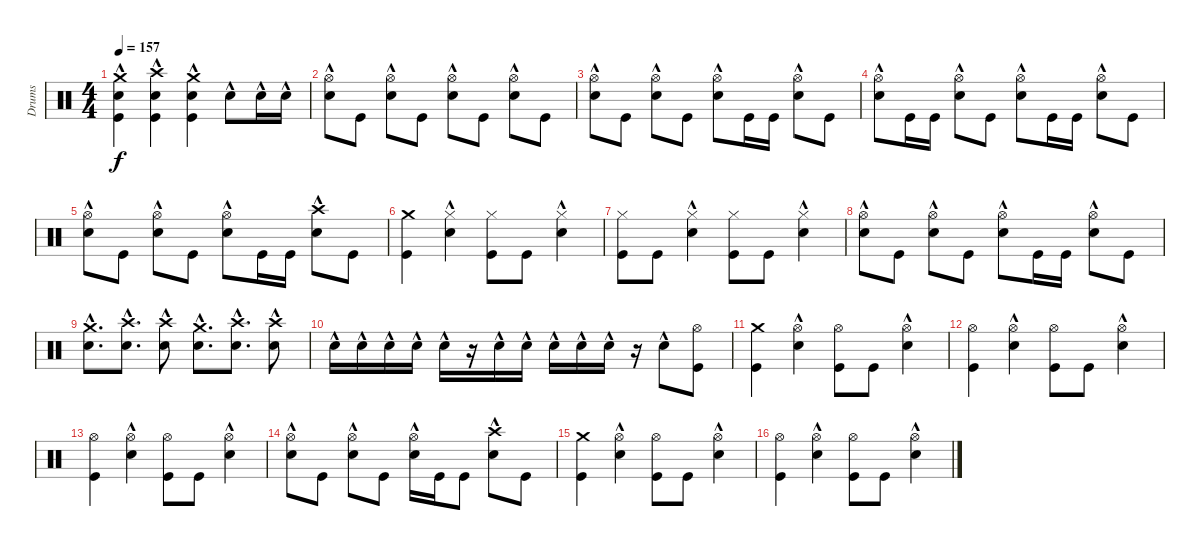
\track ("Drums" "Drums") {solo instrument percussion}
\staff {score}
\articulation defaults
\ts (4 4)
\tempo 157
\clef neutral
\ks c
("Snare (hit) 2"{hac} "Kick (hit)" "Crash medium (hit)").4{dy f} ("Kick (hit)" "Snare (hit) 2"{hac} "Crash high (hit)"{hac}).4 ("Snare (hit) 2"{hac} "Kick (hit)" "Crash medium (hit)").4 "Snare (hit) 2"{hac}.8 "Snare (hit) 2"{hac}.16 "Snare (hit) 2"{hac}.16 |
("Snare (hit) 2"{hac} "Hi-Hat (open)").8 "Kick (hit)".8 ("Snare (hit) 2"{hac} "Hi-Hat (open)").8 "Kick (hit)".8 ("Snare (hit) 2"{hac} "Hi-Hat (open)").8 "Kick (hit)".8 ("Snare (hit) 2"{hac} "Hi-Hat (open)").8 "Kick (hit)".8 |
("Snare (hit) 2"{hac} "Hi-Hat (open)").8 "Kick (hit)".8 ("Snare (hit) 2"{hac} "Hi-Hat (open)").8 "Kick (hit)".8 ("Snare (hit) 2"{hac} "Hi-Hat (open)").8 "Kick (hit)".16 "Kick (hit)".16 ("Snare (hit) 2"{hac} "Hi-Hat (open)").8 "Kick (hit)".8 |
("Snare (hit) 2"{hac} "Hi-Hat (open)").8 "Kick (hit)".16 "Kick (hit)".16 ("Snare (hit) 2"{hac} "Hi-Hat (open)").8 "Kick (hit)".8 ("Snare (hit) 2"{hac} "Hi-Hat (open)").8 "Kick (hit)".16 "Kick (hit)".16 ("Snare (hit) 2"{hac} "Hi-Hat (open)").8 "Kick (hit)".8 |
("Snare (hit) 2"{hac} "Hi-Hat (open)").8 "Kick (hit)".8 ("Snare (hit) 2"{hac} "Hi-Hat (open)").8 "Kick (hit)".8 ("Snare (hit) 2"{hac} "Hi-Hat (open)").8 "Kick (hit)".16 "Kick (hit)".16 ("Snare (hit) 2"{hac} "Crash high (hit)"{hac}).8 "Kick (hit)".8 |
("Crash medium (hit)" "Kick (hit)").4 ("Snare (hit) 2"{hac} "Hi-Hat (closed)").4 ("Kick (hit)" "Hi-Hat (closed)").8 "Kick (hit)".8 ("Snare (hit) 2"{hac} "Hi-Hat (closed)").4 |
("Kick (hit)" "Hi-Hat (closed)").8 "Kick (hit)".8 ("Snare (hit) 2"{hac} "Hi-Hat (closed)").4 ("Kick (hit)" "Hi-Hat (closed)").8 "Kick (hit)".8 ("Snare (hit) 2"{hac} "Hi-Hat (closed)").4 |
("Snare (hit) 2"{hac} "Hi-Hat (open)").8 "Kick (hit)".8 ("Snare (hit) 2"{hac} "Hi-Hat (open)").8 "Kick (hit)".8 ("Snare (hit) 2"{hac} "Hi-Hat (open)").8 "Kick (hit)".16 "Kick (hit)".16 ("Snare (hit) 2"{hac} "Hi-Hat (open)").8 "Kick (hit)".8 |
("Crash medium (hit)" "Snare (hit) 2"{hac}).8{d} ("Crash high (hit)"{hac} "Snare (hit) 2"{hac}).8{d} ("Crash high (hit)"{hac} "Snare (hit) 2"{hac}).8 ("Crash medium (hit)" "Snare (hit) 2"{hac}).8{d} ("Crash high (hit)"{hac} "Snare (hit) 2"{hac}).8{d} ("Crash high (hit)"{hac} "Snare (hit) 2"{hac}).8 |
"Snare (hit) 2"{hac}.16 "Snare (hit) 2"{hac}.16 "Snare (hit) 2"{hac}.16 "Snare (hit) 2"{hac}.16 "Snare (hit) 2"{hac}.16 r.16 "Snare (hit) 2"{hac}.16 "Snare (hit) 2"{hac}.16 "Snare (hit) 2"{hac}.16 "Snare (hit) 2"{hac}.16 "Snare (hit) 2"{hac}.16 r.16 "Snare (hit) 2"{hac}.8 ("Kick (hit)" "Hi-Hat (open)").8 |
("Crash medium (hit)" "Kick (hit)").4 ("Snare (hit) 2"{hac} "Hi-Hat (open)").4 ("Kick (hit)" "Hi-Hat (open)").8 "Kick (hit)".8 ("Snare (hit) 2"{hac} "Hi-Hat (open)").4 |
("Kick (hit)" "Hi-Hat (open)").4 ("Snare (hit) 2"{hac} "Hi-Hat (open)").4 ("Kick (hit)" "Hi-Hat (open)").8 "Kick (hit)".8 ("Snare (hit) 2"{hac} "Hi-Hat (open)").4 |
("Kick (hit)" "Hi-Hat (open)").4 ("Snare (hit) 2"{hac} "Hi-Hat (open)").4 ("Kick (hit)" "Hi-Hat (open)").8 "Kick (hit)".8 ("Snare (hit) 2"{hac} "Hi-Hat (open)").4 |
("Snare (hit) 2"{hac} "Hi-Hat (open)").8 "Kick (hit)".8 ("Snare (hit) 2"{hac} "Hi-Hat (open)").8 "Kick (hit)".8 ("Snare (hit) 2"{hac} "Hi-Hat (open)").16 "Kick (hit)".16 "Kick (hit)".8 ("Snare (hit) 2"{hac} "Crash high (hit)"{hac}).8 "Kick (hit)".8 |
("Crash medium (hit)" "Kick (hit)").4 ("Snare (hit) 2"{hac} "Hi-Hat (open)").4 ("Kick (hit)" "Hi-Hat (open)").8 "Kick (hit)".8 ("Snare (hit) 2"{hac} "Hi-Hat (open)").4 |
("Kick (hit)" "Hi-Hat (open)").4 ("Snare (hit) 2"{hac} "Hi-Hat (open)").4 ("Kick (hit)" "Hi-Hat (open)").8 "Kick (hit)".8 ("Snare (hit) 2"{hac} "Hi-Hat (open)").4
